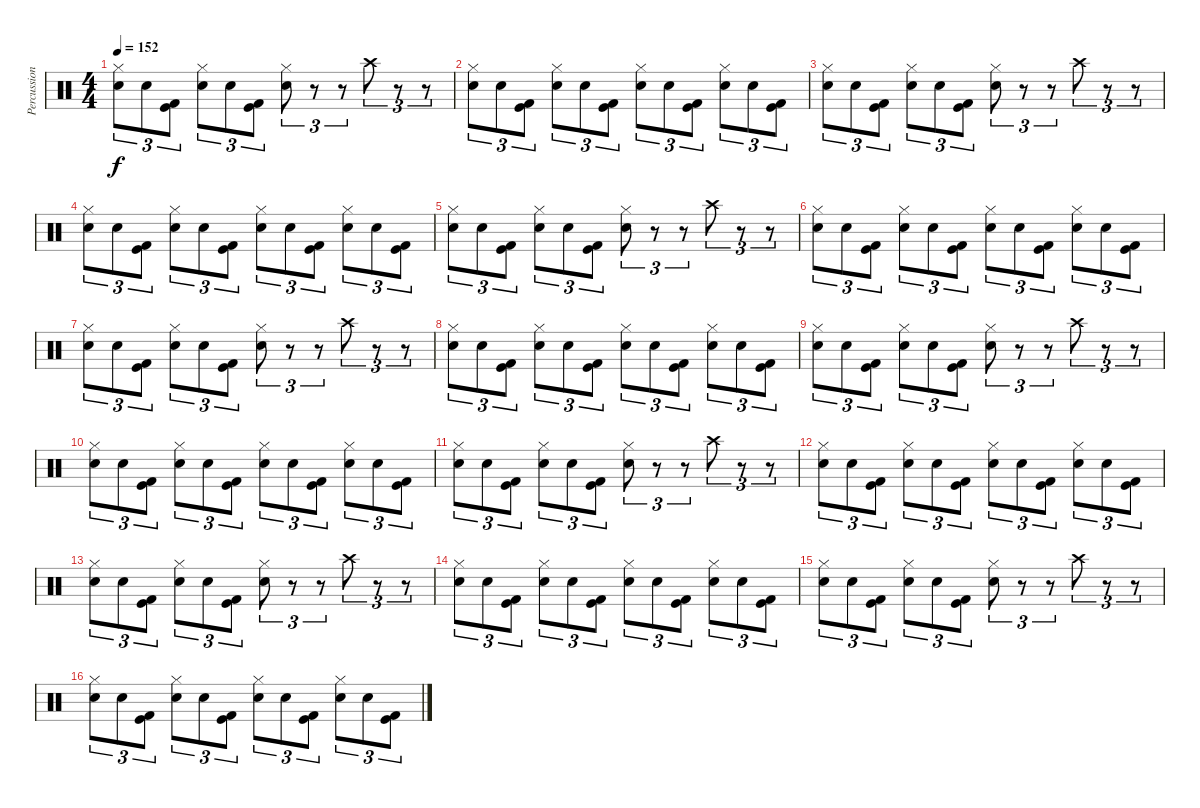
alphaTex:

\track ("Percussion" "Percussion") {instrument percussion}
\staff {score}
\articulation defaults
\ts (4 4)
\tempo 152
\clef neutral
\ks c
("Hi-Hat (closed)" "Electric Snare (hit)").8{tu (3 2) dy f} "Electric Snare (hit)".8{tu (3 2)} ("Kick (hit) 2" "Kick (hit)").8{tu (3 2)} ("Hi-Hat (closed)" "Electric Snare (hit)").8{tu (3 2)} "Electric Snare (hit)".8{tu (3 2)} ("Kick (hit) 2" "Kick (hit)").8{tu (3 2)} ("Hi-Hat (closed)" "Electric Snare (hit)").8{tu (3 2)} r.8{tu (3 2)} r.8{tu (3 2)} "Crash high (hit)".8{tu (3 2)} r.8{tu (3 2)} r.8{tu (3 2)} |
("Hi-Hat (closed)" "Electric Snare (hit)").8{tu (3 2)} "Electric Snare (hit)".8{tu (3 2)} ("Kick (hit) 2" "Kick (hit)").8{tu (3 2)} ("Hi-Hat (closed)" "Electric Snare (hit)").8{tu (3 2)} "Electric Snare (hit)".8{tu (3 2)} ("Kick (hit) 2" "Kick (hit)").8{tu (3 2)} ("Hi-Hat (closed)" "Electric Snare (hit)").8{tu (3 2)} "Electric Snare (hit)".8{tu (3 2)} ("Kick (hit) 2" "Kick (hit)").8{tu (3 2)} ("Hi-Hat (closed)" "Electric Snare (hit)").8{tu (3 2)} "Electric Snare (hit)".8{tu (3 2)} ("Kick (hit) 2" "Kick (hit)").8{tu (3 2)} |
("Hi-Hat (closed)" "Electric Snare (hit)").8{tu (3 2)} "Electric Snare (hit)".8{tu (3 2)} ("Kick (hit) 2" "Kick (hit)").8{tu (3 2)} ("Hi-Hat (closed)" "Electric Snare (hit)").8{tu (3 2)} "Electric Snare (hit)".8{tu (3 2)} ("Kick (hit) 2" "Kick (hit)").8{tu (3 2)} ("Hi-Hat (closed)" "Electric Snare (hit)").8{tu (3 2)} r.8{tu (3 2)} r.8{tu (3 2)} "Crash high (hit)".8{tu (3 2)} r.8{tu (3 2)} r.8{tu (3 2)} |
("Hi-Hat (closed)" "Electric Snare (hit)").8{tu (3 2)} "Electric Snare (hit)".8{tu (3 2)} ("Kick (hit) 2" "Kick (hit)").8{tu (3 2)} ("Hi-Hat (closed)" "Electric Snare (hit)").8{tu (3 2)} "Electric Snare (hit)".8{tu (3 2)} ("Kick (hit) 2" "Kick (hit)").8{tu (3 2)} ("Hi-Hat (closed)" "Electric Snare (hit)").8{tu (3 2)} "Electric Snare (hit)".8{tu (3 2)} ("Kick (hit) 2" "Kick (hit)").8{tu (3 2)} ("Hi-Hat (closed)" "Electric Snare (hit)").8{tu (3 2)} "Electric Snare (hit)".8{tu (3 2)} ("Kick (hit) 2" "Kick (hit)").8{tu (3 2)} |
("Hi-Hat (closed)" "Electric Snare (hit)").8{tu (3 2)} "Electric Snare (hit)".8{tu (3 2)} ("Kick (hit) 2" "Kick (hit)").8{tu (3 2)} ("Hi-Hat (closed)" "Electric Snare (hit)").8{tu (3 2)} "Electric Snare (hit)".8{tu (3 2)} ("Kick (hit) 2" "Kick (hit)").8{tu (3 2)} ("Hi-Hat (closed)" "Electric Snare (hit)").8{tu (3 2)} r.8{tu (3 2)} r.8{tu (3 2)} "Crash high (hit)".8{tu (3 2)} r.8{tu (3 2)} r.8{tu (3 2)} |
("Hi-Hat (closed)" "Electric Snare (hit)").8{tu (3 2)} "Electric Snare (hit)".8{tu (3 2)} ("Kick (hit) 2" "Kick (hit)").8{tu (3 2)} ("Hi-Hat (closed)" "Electric Snare (hit)").8{tu (3 2)} "Electric Snare (hit)".8{tu (3 2)} ("Kick (hit) 2" "Kick (hit)").8{tu (3 2)} ("Hi-Hat (closed)" "Electric Snare (hit)").8{tu (3 2)} "Electric Snare (hit)".8{tu (3 2)} ("Kick (hit) 2" "Kick (hit)").8{tu (3 2)} ("Hi-Hat (closed)" "Electric Snare (hit)").8{tu (3 2)} "Electric Snare (hit)".8{tu (3 2)} ("Kick (hit) 2" "Kick (hit)").8{tu (3 2)} |
("Hi-Hat (closed)" "Electric Snare (hit)").8{tu (3 2)} "Electric Snare (hit)".8{tu (3 2)} ("Kick (hit) 2" "Kick (hit)").8{tu (3 2)} ("Hi-Hat (closed)" "Electric Snare (hit)").8{tu (3 2)} "Electric Snare (hit)".8{tu (3 2)} ("Kick (hit) 2" "Kick (hit)").8{tu (3 2)} ("Hi-Hat (closed)" "Electric Snare (hit)").8{tu (3 2)} r.8{tu (3 2)} r.8{tu (3 2)} "Crash high (hit)".8{tu (3 2)} r.8{tu (3 2)} r.8{tu (3 2)} |
("Hi-Hat (closed)" "Electric Snare (hit)").8{tu (3 2)} "Electric Snare (hit)".8{tu (3 2)} ("Kick (hit) 2" "Kick (hit)").8{tu (3 2)} ("Hi-Hat (closed)" "Electric Snare (hit)").8{tu (3 2)} "Electric Snare (hit)".8{tu (3 2)} ("Kick (hit) 2" "Kick (hit)").8{tu (3 2)} ("Hi-Hat (closed)" "Electric Snare (hit)").8{tu (3 2)} "Electric Snare (hit)".8{tu (3 2)} ("Kick (hit) 2" "Kick (hit)").8{tu (3 2)} ("Hi-Hat (closed)" "Electric Snare (hit)").8{tu (3 2)} "Electric Snare (hit)".8{tu (3 2)} ("Kick (hit) 2" "Kick (hit)").8{tu (3 2)} |
("Hi-Hat (closed)" "Electric Snare (hit)").8{tu (3 2)} "Electric Snare (hit)".8{tu (3 2)} ("Kick (hit) 2" "Kick (hit)").8{tu (3 2)} ("Hi-Hat (closed)" "Electric Snare (hit)").8{tu (3 2)} "Electric Snare (hit)".8{tu (3 2)} ("Kick (hit) 2" "Kick (hit)").8{tu (3 2)} ("Hi-Hat (closed)" "Electric Snare (hit)").8{tu (3 2)} r.8{tu (3 2)} r.8{tu (3 2)} "Crash high (hit)".8{tu (3 2)} r.8{tu (3 2)} r.8{tu (3 2)} |
("Hi-Hat (closed)" "Electric Snare (hit)").8{tu (3 2)} "Electric Snare (hit)".8{tu (3 2)} ("Kick (hit) 2" "Kick (hit)").8{tu (3 2)} ("Hi-Hat (closed)" "Electric Snare (hit)").8{tu (3 2)} "Electric Snare (hit)".8{tu (3 2)} ("Kick (hit) 2" "Kick (hit)").8{tu (3 2)} ("Hi-Hat (closed)" "Electric Snare (hit)").8{tu (3 2)} "Electric Snare (hit)".8{tu (3 2)} ("Kick (hit) 2" "Kick (hit)").8{tu (3 2)} ("Hi-Hat (closed)" "Electric Snare (hit)").8{tu (3 2)} "Electric Snare (hit)".8{tu (3 2)} ("Kick (hit) 2" "Kick (hit)").8{tu (3 2)} |
("Hi-Hat (closed)" "Electric Snare (hit)").8{tu (3 2)} "Electric Snare (hit)".8{tu (3 2)} ("Kick (hit) 2" "Kick (hit)").8{tu (3 2)} ("Hi-Hat (closed)" "Electric Snare (hit)").8{tu (3 2)} "Electric Snare (hit)".8{tu (3 2)} ("Kick (hit) 2" "Kick (hit)").8{tu (3 2)} ("Hi-Hat (closed)" "Electric Snare (hit)").8{tu (3 2)} r.8{tu (3 2)} r.8{tu (3 2)} "Crash high (hit)".8{tu (3 2)} r.8{tu (3 2)} r.8{tu (3 2)} |
("Hi-Hat (closed)" "Electric Snare (hit)").8{tu (3 2)} "Electric Snare (hit)".8{tu (3 2)} ("Kick (hit) 2" "Kick (hit)").8{tu (3 2)} ("Hi-Hat (closed)" "Electric Snare (hit)").8{tu (3 2)} "Electric Snare (hit)".8{tu (3 2)} ("Kick (hit) 2" "Kick (hit)").8{tu (3 2)} ("Hi-Hat (closed)" "Electric Snare (hit)").8{tu (3 2)} "Electric Snare (hit)".8{tu (3 2)} ("Kick (hit) 2" "Kick (hit)").8{tu (3 2)} ("Hi-Hat (closed)" "Electric Snare (hit)").8{tu (3 2)} "Electric Snare (hit)".8{tu (3 2)} ("Kick (hit) 2" "Kick (hit)").8{tu (3 2)} |
("Hi-Hat (closed)" "Electric Snare (hit)").8{tu (3 2)} "Electric Snare (hit)".8{tu (3 2)} ("Kick (hit) 2" "Kick (hit)").8{tu (3 2)} ("Hi-Hat (closed)" "Electric Snare (hit)").8{tu (3 2)} "Electric Snare (hit)".8{tu (3 2)} ("Kick (hit) 2" "Kick (hit)").8{tu (3 2)} ("Hi-Hat (closed)" "Electric Snare (hit)").8{tu (3 2)} r.8{tu (3 2)} r.8{tu (3 2)} "Crash high (hit)".8{tu (3 2)} r.8{tu (3 2)} r.8{tu (3 2)} |
("Hi-Hat (closed)" "Electric Snare (hit)").8{tu (3 2)} "Electric Snare (hit)".8{tu (3 2)} ("Kick (hit) 2" "Kick (hit)").8{tu (3 2)} ("Hi-Hat (closed)" "Electric Snare (hit)").8{tu (3 2)} "Electric Snare (hit)".8{tu (3 2)} ("Kick (hit) 2" "Kick (hit)").8{tu (3 2)} ("Hi-Hat (closed)" "Electric Snare (hit)").8{tu (3 2)} "Electric Snare (hit)".8{tu (3 2)} ("Kick (hit) 2" "Kick (hit)").8{tu (3 2)} ("Hi-Hat (closed)" "Electric Snare (hit)").8{tu (3 2)} "Electric Snare (hit)".8{tu (3 2)} ("Kick (hit) 2" "Kick (hit)").8{tu (3 2)} |
("Hi-Hat (closed)" "Electric Snare (hit)").8{tu (3 2)} "Electric Snare (hit)".8{tu (3 2)} ("Kick (hit) 2" "Kick (hit)").8{tu (3 2)} ("Hi-Hat (closed)" "Electric Snare (hit)").8{tu (3 2)} "Electric Snare (hit)".8{tu (3 2)} ("Kick (hit) 2" "Kick (hit)").8{tu (3 2)} ("Hi-Hat (closed)" "Electric Snare (hit)").8{tu (3 2)} r.8{tu (3 2)} r.8{tu (3 2)} "Crash high (hit)".8{tu (3 2)} r.8{tu (3 2)} r.8{tu (3 2)} |
("Hi-Hat (closed)" "Electric Snare (hit)").8{tu (3 2)} "Electric Snare (hit)".8{tu (3 2)} ("Kick (hit) 2" "Kick (hit)").8{tu (3 2)} ("Hi-Hat (closed)" "Electric Snare (hit)").8{tu (3 2)} "Electric Snare (hit)".8{tu (3 2)} ("Kick (hit) 2" "Kick (hit)").8{tu (3 2)} ("Hi-Hat (closed)" "Electric Snare (hit)").8{tu (3 2)} "Electric Snare (hit)".8{tu (3 2)} ("Kick (hit) 2" "Kick (hit)").8{tu (3 2)} ("Hi-Hat (closed)" "Electric Snare (hit)").8{tu (3 2)} "Electric Snare (hit)".8{tu (3 2)} ("Kick (hit) 2" "Kick (hit)").8{tu (3 2)}
